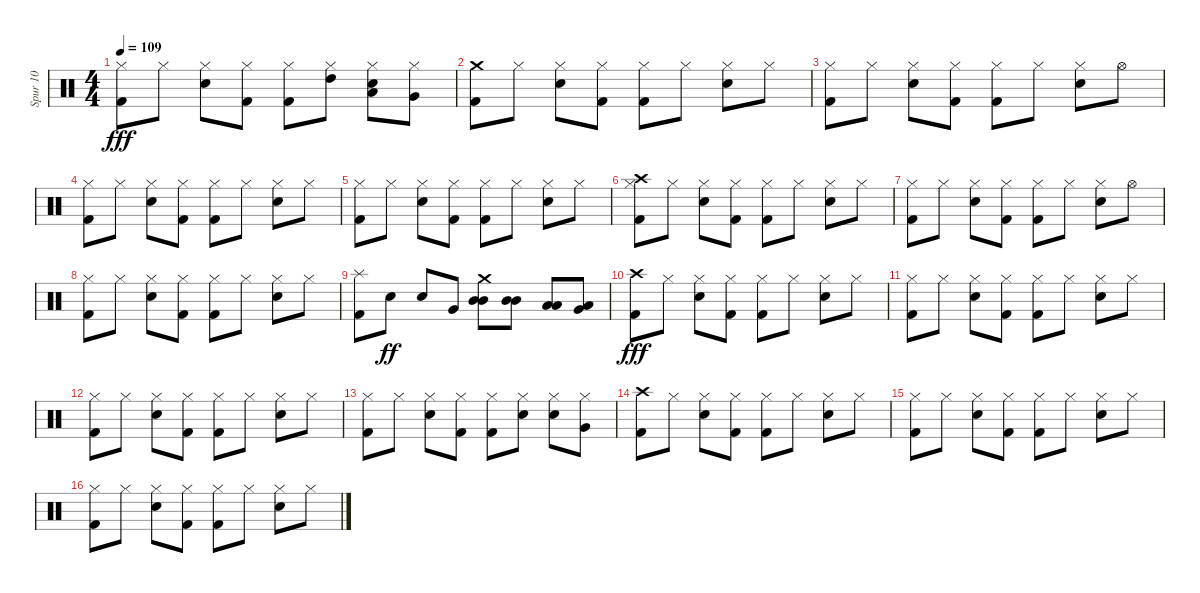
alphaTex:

\track ("Spur 10" "Spur 10") {instrument percussion}
\staff {score}
\articulation defaults
\ts (4 4)
\tempo 109
\clef neutral
\ks c
("Kick (hit) 2" "Hi-Hat (closed)").8{dy fff} "Hi-Hat (closed)".8 ("Snare (hit) 2" "Hi-Hat (closed)").8 ("Kick (hit) 2" "Hi-Hat (closed)").8 ("Kick (hit) 2" "Hi-Hat (closed)").8 ("High Tom (hit)" "Hi-Hat (closed)").8 ("Snare (hit) 2" "Low Tom (hit)" "Hi-Hat (closed)").8 ("Very Low Tom (hit)" "Hi-Hat (closed)").8 |
("Kick (hit) 2" "Crash medium (hit)").8 "Hi-Hat (closed)".8 ("Snare (hit) 2" "Hi-Hat (closed)").8 ("Kick (hit) 2" "Hi-Hat (closed)").8 ("Kick (hit) 2" "Hi-Hat (closed)").8 "Hi-Hat (closed)".8 ("Snare (hit) 2" "Hi-Hat (closed)").8 "Hi-Hat (closed)".8 |
("Kick (hit) 2" "Hi-Hat (closed)").8 "Hi-Hat (closed)".8 ("Snare (hit) 2" "Hi-Hat (closed)").8 ("Kick (hit) 2" "Hi-Hat (closed)").8 ("Kick (hit) 2" "Hi-Hat (closed)").8 "Hi-Hat (closed)".8 ("Snare (hit) 2" "Hi-Hat (closed)").8 "Hi-Hat (open)".8 |
("Kick (hit) 2" "Hi-Hat (closed)").8 "Hi-Hat (closed)".8 ("Snare (hit) 2" "Hi-Hat (closed)").8 ("Kick (hit) 2" "Hi-Hat (closed)").8 ("Kick (hit) 2" "Hi-Hat (closed)").8 "Hi-Hat (closed)".8 ("Snare (hit) 2" "Hi-Hat (closed)").8 "Hi-Hat (closed)".8 |
("Kick (hit) 2" "Hi-Hat (closed)").8 "Hi-Hat (closed)".8 ("Snare (hit) 2" "Hi-Hat (closed)").8 ("Kick (hit) 2" "Hi-Hat (closed)").8 ("Kick (hit) 2" "Hi-Hat (closed)").8 "Hi-Hat (closed)".8 ("Snare (hit) 2" "Hi-Hat (closed)").8 "Hi-Hat (closed)".8 |
("Kick (hit) 2" "Hi-Hat (closed)" "Crash high (hit)").8 "Hi-Hat (closed)".8 ("Snare (hit) 2" "Hi-Hat (closed)").8 ("Kick (hit) 2" "Hi-Hat (closed)").8 ("Kick (hit) 2" "Hi-Hat (closed)").8 "Hi-Hat (closed)".8 ("Snare (hit) 2" "Hi-Hat (closed)").8 "Hi-Hat (closed)".8 |
("Kick (hit) 2" "Hi-Hat (closed)").8 "Hi-Hat (closed)".8 ("Snare (hit) 2" "Hi-Hat (closed)").8 ("Kick (hit) 2" "Hi-Hat (closed)").8 ("Kick (hit) 2" "Hi-Hat (closed)").8 "Hi-Hat (closed)".8 ("Snare (hit) 2" "Hi-Hat (closed)").8 "Hi-Hat (open)".8 |
("Kick (hit) 2" "Hi-Hat (closed)").8 "Hi-Hat (closed)".8 ("Snare (hit) 2" "Hi-Hat (closed)").8 ("Kick (hit) 2" "Hi-Hat (closed)").8 ("Kick (hit) 2" "Hi-Hat (closed)").8 "Hi-Hat (closed)".8 ("Snare (hit) 2" "Hi-Hat (closed)").8 "Hi-Hat (closed)".8 |
("Kick (hit) 2" "Splash (hit)").8 "Snare (hit) 2".8{dy ff} "Snare (hit) 2".8 "Very Low Tom (hit)".8 ("Mid Tom (hit)" "Crash medium (hit)" "Mid Tom (hit)").8 ("Mid Tom (hit)" "Mid Tom (hit)").8 ("Low Tom (hit)" "Low Tom (hit)").8 ("Very Low Tom (hit)" "Low Floor Tom (hit)").8 |
("Kick (hit) 2" "Crash high (hit)").8{dy fff} "Hi-Hat (closed)".8 ("Snare (hit) 2" "Hi-Hat (closed)").8 ("Kick (hit) 2" "Hi-Hat (closed)").8 ("Kick (hit) 2" "Hi-Hat (closed)").8 "Hi-Hat (closed)".8 ("Snare (hit) 2" "Hi-Hat (closed)").8 "Hi-Hat (closed)".8 |
("Kick (hit) 2" "Hi-Hat (closed)").8 "Hi-Hat (closed)".8 ("Snare (hit) 2" "Hi-Hat (closed)").8 ("Kick (hit) 2" "Hi-Hat (closed)").8 ("Kick (hit) 2" "Hi-Hat (closed)").8 "Hi-Hat (closed)".8 ("Snare (hit) 2" "Hi-Hat (closed)").8 "Hi-Hat (closed)".8 |
("Kick (hit) 2" "Hi-Hat (closed)").8 "Hi-Hat (closed)".8 ("Snare (hit) 2" "Hi-Hat (closed)").8 ("Kick (hit) 2" "Hi-Hat (closed)").8 ("Kick (hit) 2" "Hi-Hat (closed)").8 "Hi-Hat (closed)".8 ("Snare (hit) 2" "Hi-Hat (closed)").8 "Hi-Hat (closed)".8 |
("Kick (hit) 2" "Hi-Hat (closed)").8 "Hi-Hat (closed)".8 ("Snare (hit) 2" "Hi-Hat (closed)").8 ("Kick (hit) 2" "Hi-Hat (closed)").8 ("Kick (hit) 2" "Hi-Hat (closed)").8 ("Snare (hit) 2" "Hi-Hat (closed)").8 ("Snare (hit) 2" "Hi-Hat (closed)").8 ("Very Low Tom (hit)" "Hi-Hat (closed)").8 |
("Kick (hit) 2" "Crash high (hit)").8 "Hi-Hat (closed)".8 ("Snare (hit) 2" "Hi-Hat (closed)").8 ("Kick (hit) 2" "Hi-Hat (closed)").8 ("Kick (hit) 2" "Hi-Hat (closed)").8 "Hi-Hat (closed)".8 ("Snare (hit) 2" "Hi-Hat (closed)").8 "Hi-Hat (closed)".8 |
("Kick (hit) 2" "Hi-Hat (closed)").8 "Hi-Hat (closed)".8 ("Snare (hit) 2" "Hi-Hat (closed)").8 ("Kick (hit) 2" "Hi-Hat (closed)").8 ("Kick (hit) 2" "Hi-Hat (closed)").8 "Hi-Hat (closed)".8 ("Snare (hit) 2" "Hi-Hat (closed)").8 "Hi-Hat (closed)".8 |
("Kick (hit) 2" "Hi-Hat (closed)").8 "Hi-Hat (closed)".8 ("Snare (hit) 2" "Hi-Hat (closed)").8 ("Kick (hit) 2" "Hi-Hat (closed)").8 ("Kick (hit) 2" "Hi-Hat (closed)").8 "Hi-Hat (closed)".8 ("Snare (hit) 2" "Hi-Hat (closed)").8 "Hi-Hat (closed)".8
